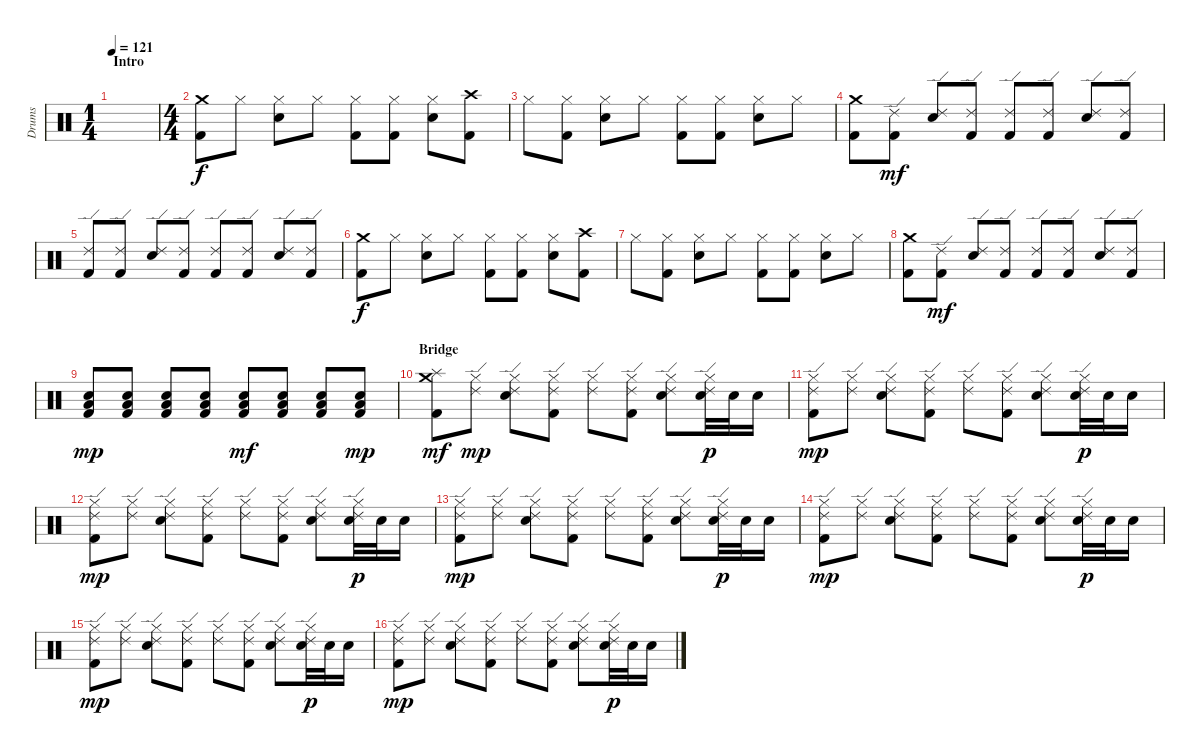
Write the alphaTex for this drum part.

\track ("Drums" "Drums") {instrument percussion}
\staff {score}
\articulation defaults
\ts (1 4)
\section ("" "Intro")
\tempo 121
\clef neutral
\ks c
|
\ts (4 4)
("Crash medium (hit)" "Kick (hit) 2").8 "Hi-Hat (closed)".8 ("Hi-Hat (closed)" "Electric Snare (hit)").8 "Hi-Hat (closed)".8 ("Hi-Hat (closed)" "Kick (hit) 2").8 ("Hi-Hat (closed)" "Kick (hit) 2").8 ("Hi-Hat (closed)" "Electric Snare (hit)").8 ("Crash high (hit)" "Kick (hit) 2").8 |
"Hi-Hat (closed)".8 ("Hi-Hat (closed)" "Kick (hit) 2").8 ("Hi-Hat (closed)" "Electric Snare (hit)").8 "Hi-Hat (closed)".8 ("Hi-Hat (closed)" "Kick (hit) 2").8 ("Hi-Hat (closed)" "Kick (hit) 2").8 ("Hi-Hat (closed)" "Electric Snare (hit)").8 "Hi-Hat (closed)".8 |
("Crash medium (hit)" "Kick (hit) 2").8 ("Ride (edge) 2" "Kick (hit) 2").8{dy mf} ("Ride (edge) 2" "Electric Snare (hit)").8 ("Ride (edge) 2" "Kick (hit) 2").8 ("Ride (edge) 2" "Kick (hit) 2").8 ("Ride (edge) 2" "Kick (hit) 2").8 ("Ride (edge) 2" "Electric Snare (hit)").8 ("Ride (edge) 2" "Kick (hit) 2").8 |
("Ride (edge) 2" "Kick (hit) 2").8 ("Ride (edge) 2" "Kick (hit) 2").8 ("Ride (edge) 2" "Electric Snare (hit)").8 ("Ride (edge) 2" "Kick (hit) 2").8 ("Ride (edge) 2" "Kick (hit) 2").8 ("Ride (edge) 2" "Kick (hit) 2").8 ("Ride (edge) 2" "Electric Snare (hit)").8 ("Ride (edge) 2" "Kick (hit) 2").8 |
("Crash medium (hit)" "Kick (hit) 2").8{dy f} "Hi-Hat (closed)".8 ("Hi-Hat (closed)" "Electric Snare (hit)").8 "Hi-Hat (closed)".8 ("Hi-Hat (closed)" "Kick (hit) 2").8 ("Hi-Hat (closed)" "Kick (hit) 2").8 ("Hi-Hat (closed)" "Electric Snare (hit)").8 ("Crash high (hit)" "Kick (hit) 2").8 |
"Hi-Hat (closed)".8 ("Hi-Hat (closed)" "Kick (hit) 2").8 ("Hi-Hat (closed)" "Electric Snare (hit)").8 "Hi-Hat (closed)".8 ("Hi-Hat (closed)" "Kick (hit) 2").8 ("Hi-Hat (closed)" "Kick (hit) 2").8 ("Hi-Hat (closed)" "Electric Snare (hit)").8 "Hi-Hat (closed)".8 |
("Crash medium (hit)" "Kick (hit) 2").8 ("Ride (edge) 2" "Kick (hit) 2").8{dy mf} ("Ride (edge) 2" "Electric Snare (hit)").8 ("Ride (edge) 2" "Kick (hit) 2").8 ("Ride (edge) 2" "Kick (hit) 2").8 ("Ride (edge) 2" "Kick (hit) 2").8 ("Ride (edge) 2" "Electric Snare (hit)").8 ("Ride (edge) 2" "Kick (hit) 2").8 |
("Electric Snare (hit)" "Low Floor Tom (hit)" "Kick (hit) 2").8{dy mp} ("Electric Snare (hit)" "Low Floor Tom (hit)" "Kick (hit) 2").8 ("Electric Snare (hit)" "Low Floor Tom (hit)" "Kick (hit) 2").8 ("Electric Snare (hit)" "Low Floor Tom (hit)" "Kick (hit) 2").8 ("Electric Snare (hit)" "Low Floor Tom (hit)" "Kick (hit) 2").8{dy mf} ("Electric Snare (hit)" "Low Floor Tom (hit)" "Kick (hit) 2").8 ("Electric Snare (hit)" "Low Floor Tom (hit)" "Kick (hit) 2").8 ("Electric Snare (hit)" "Low Floor Tom (hit)" "Kick (hit) 2").8{dy mp} |
\section ("" "Bridge")
("Crash medium (hit)" "Splash (hit)" "Kick (hit) 2").8{dy mf volume 11} ("Hi-Hat (closed)" "Ride (edge) 2").8{dy mp} ("Hi-Hat (closed)" "Ride (edge) 2" "Electric Snare (hit)").8 ("Hi-Hat (closed)" "Ride (edge) 2" "Kick (hit) 2").8 ("Hi-Hat (closed)" "Ride (edge) 2").8 ("Hi-Hat (closed)" "Ride (edge) 2" "Kick (hit) 2").8 ("Hi-Hat (closed)" "Ride (edge) 2" "Electric Snare (hit)").8 ("Hi-Hat (closed)" "Ride (edge) 2" "Electric Snare (hit)").32{dy p} "Electric Snare (hit)".32 "Electric Snare (hit)".16 |
("Hi-Hat (closed)" "Ride (edge) 2" "Kick (hit) 2").8{dy mp} ("Hi-Hat (closed)" "Ride (edge) 2").8 ("Hi-Hat (closed)" "Ride (edge) 2" "Electric Snare (hit)").8 ("Hi-Hat (closed)" "Ride (edge) 2" "Kick (hit) 2").8 ("Hi-Hat (closed)" "Ride (edge) 2").8 ("Hi-Hat (closed)" "Ride (edge) 2" "Kick (hit) 2").8 ("Hi-Hat (closed)" "Ride (edge) 2" "Electric Snare (hit)").8 ("Hi-Hat (closed)" "Ride (edge) 2" "Electric Snare (hit)").32{dy p} "Electric Snare (hit)".32 "Electric Snare (hit)".16 |
("Hi-Hat (closed)" "Ride (edge) 2" "Kick (hit) 2").8{dy mp} ("Hi-Hat (closed)" "Ride (edge) 2").8 ("Hi-Hat (closed)" "Ride (edge) 2" "Electric Snare (hit)").8 ("Hi-Hat (closed)" "Ride (edge) 2" "Kick (hit) 2").8 ("Hi-Hat (closed)" "Ride (edge) 2").8 ("Hi-Hat (closed)" "Ride (edge) 2" "Kick (hit) 2").8 ("Hi-Hat (closed)" "Ride (edge) 2" "Electric Snare (hit)").8 ("Hi-Hat (closed)" "Ride (edge) 2" "Electric Snare (hit)").32{dy p} "Electric Snare (hit)".32 "Electric Snare (hit)".16 |
("Hi-Hat (closed)" "Ride (edge) 2" "Kick (hit) 2").8{dy mp} ("Hi-Hat (closed)" "Ride (edge) 2").8 ("Hi-Hat (closed)" "Ride (edge) 2" "Electric Snare (hit)").8 ("Hi-Hat (closed)" "Ride (edge) 2" "Kick (hit) 2").8 ("Hi-Hat (closed)" "Ride (edge) 2").8 ("Hi-Hat (closed)" "Ride (edge) 2" "Kick (hit) 2").8 ("Hi-Hat (closed)" "Ride (edge) 2" "Electric Snare (hit)").8 ("Hi-Hat (closed)" "Ride (edge) 2" "Electric Snare (hit)").32{dy p} "Electric Snare (hit)".32 "Electric Snare (hit)".16 |
("Hi-Hat (closed)" "Ride (edge) 2" "Kick (hit) 2").8{dy mp} ("Hi-Hat (closed)" "Ride (edge) 2").8 ("Hi-Hat (closed)" "Ride (edge) 2" "Electric Snare (hit)").8 ("Hi-Hat (closed)" "Ride (edge) 2" "Kick (hit) 2").8 ("Hi-Hat (closed)" "Ride (edge) 2").8 ("Hi-Hat (closed)" "Ride (edge) 2" "Kick (hit) 2").8 ("Hi-Hat (closed)" "Ride (edge) 2" "Electric Snare (hit)").8 ("Hi-Hat (closed)" "Ride (edge) 2" "Electric Snare (hit)").32{dy p} "Electric Snare (hit)".32 "Electric Snare (hit)".16 |
("Hi-Hat (closed)" "Ride (edge) 2" "Kick (hit) 2").8{dy mp} ("Hi-Hat (closed)" "Ride (edge) 2").8 ("Hi-Hat (closed)" "Ride (edge) 2" "Electric Snare (hit)").8 ("Hi-Hat (closed)" "Ride (edge) 2" "Kick (hit) 2").8 ("Hi-Hat (closed)" "Ride (edge) 2").8 ("Hi-Hat (closed)" "Ride (edge) 2" "Kick (hit) 2").8 ("Hi-Hat (closed)" "Ride (edge) 2" "Electric Snare (hit)").8 ("Hi-Hat (closed)" "Ride (edge) 2" "Electric Snare (hit)").32{dy p} "Electric Snare (hit)".32 "Electric Snare (hit)".16 |
("Hi-Hat (closed)" "Ride (edge) 2" "Kick (hit) 2").8{dy mp} ("Hi-Hat (closed)" "Ride (edge) 2").8 ("Hi-Hat (closed)" "Ride (edge) 2" "Electric Snare (hit)").8 ("Hi-Hat (closed)" "Ride (edge) 2" "Kick (hit) 2").8 ("Hi-Hat (closed)" "Ride (edge) 2").8 ("Hi-Hat (closed)" "Ride (edge) 2" "Kick (hit) 2").8 ("Hi-Hat (closed)" "Ride (edge) 2" "Electric Snare (hit)").8 ("Hi-Hat (closed)" "Ride (edge) 2" "Electric Snare (hit)").32{dy p} "Electric Snare (hit)".32 "Electric Snare (hit)".16
